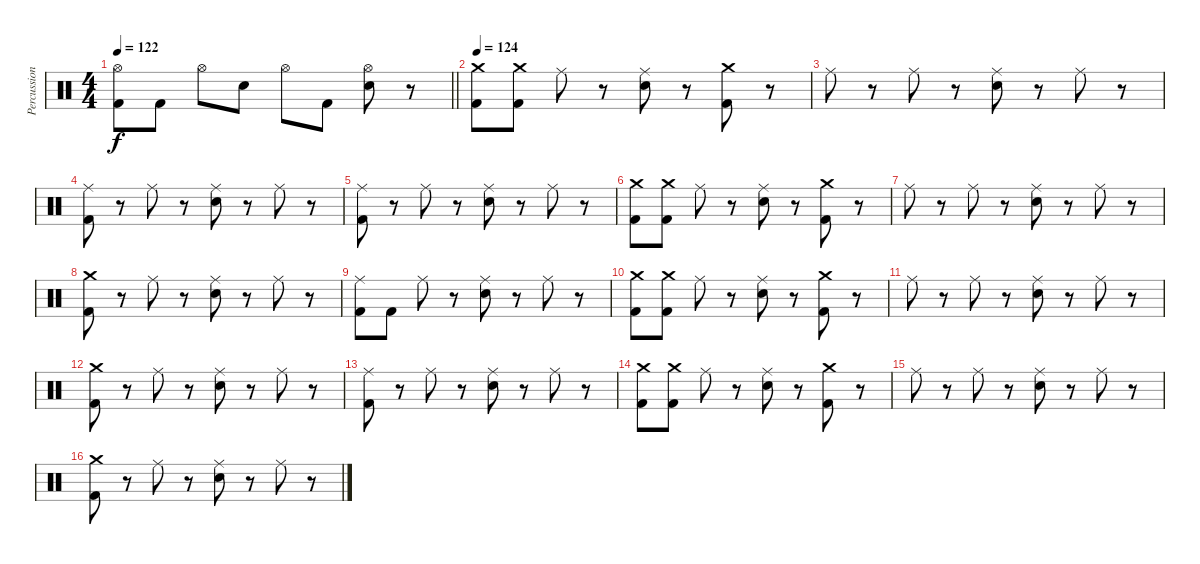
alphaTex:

\track ("Percussion" "Percussion") {instrument percussion}
\staff {score}
\articulation defaults
\ts (4 4)
\tempo 122
\clef neutral
\barLineRight lightlight
\ks c
("Hi-Hat (open)" "Kick (hit) 2").8{dy f} "Kick (hit) 2".8 "Hi-Hat (open)".8 "Electric Snare (hit)".8 "Hi-Hat (open)".8 "Kick (hit) 2".8 ("Hi-Hat (open)" "Electric Snare (hit)").8 r.8 |
\section ("" "")
\tempo 124
("Crash medium (hit)" "Kick (hit) 2").8 ("Crash medium (hit)" "Kick (hit) 2").8 "Ride (middle)".8 r.8 ("Ride (middle)" "Electric Snare (hit)").8 r.8 ("Crash medium (hit)" "Kick (hit) 2").8 r.8 |
"Ride (middle)".8 r.8 "Ride (middle)".8 r.8 ("Ride (middle)" "Electric Snare (hit)").8 r.8 "Ride (middle)".8 r.8 |
("Ride (middle)" "Kick (hit) 2").8 r.8 "Ride (middle)".8 r.8 ("Ride (middle)" "Electric Snare (hit)").8 r.8 "Ride (middle)".8 r.8 |
("Ride (middle)" "Kick (hit) 2").8 r.8 "Ride (middle)".8 r.8 ("Ride (middle)" "Electric Snare (hit)").8 r.8 "Ride (middle)".8 r.8 |
("Crash medium (hit)" "Kick (hit) 2").8 ("Crash medium (hit)" "Kick (hit) 2").8 "Ride (middle)".8 r.8 ("Ride (middle)" "Electric Snare (hit)").8 r.8 ("Crash medium (hit)" "Kick (hit) 2").8 r.8 |
"Ride (middle)".8 r.8 "Ride (middle)".8 r.8 ("Ride (middle)" "Electric Snare (hit)").8 r.8 "Ride (middle)".8 r.8 |
("Crash medium (hit)" "Kick (hit) 2").8 r.8 "Ride (middle)".8 r.8 ("Ride (middle)" "Electric Snare (hit)").8 r.8 "Ride (middle)".8 r.8 |
("Ride (middle)" "Kick (hit) 2").8 "Kick (hit) 2".8 "Ride (middle)".8 r.8 ("Ride (middle)" "Electric Snare (hit)").8 r.8 "Ride (middle)".8 r.8 |
("Crash medium (hit)" "Kick (hit) 2").8 ("Crash medium (hit)" "Kick (hit) 2").8 "Ride (middle)".8 r.8 ("Ride (middle)" "Electric Snare (hit)").8 r.8 ("Crash medium (hit)" "Kick (hit) 2").8 r.8 |
"Ride (middle)".8 r.8 "Ride (middle)".8 r.8 ("Ride (middle)" "Electric Snare (hit)").8 r.8 "Ride (middle)".8 r.8 |
("Crash medium (hit)" "Kick (hit) 2").8 r.8 "Ride (middle)".8 r.8 ("Ride (middle)" "Electric Snare (hit)").8 r.8 "Ride (middle)".8 r.8 |
("Ride (middle)" "Kick (hit) 2").8 r.8 "Ride (middle)".8 r.8 ("Ride (middle)" "Electric Snare (hit)").8 r.8 "Ride (middle)".8 r.8 |
("Crash medium (hit)" "Kick (hit) 2").8 ("Crash medium (hit)" "Kick (hit) 2").8 "Ride (middle)".8 r.8 ("Ride (middle)" "Electric Snare (hit)").8 r.8 ("Crash medium (hit)" "Kick (hit) 2").8 r.8 |
"Ride (middle)".8 r.8 "Ride (middle)".8 r.8 ("Ride (middle)" "Electric Snare (hit)").8 r.8 "Ride (middle)".8 r.8 |
("Crash medium (hit)" "Kick (hit) 2").8 r.8 "Ride (middle)".8 r.8 ("Ride (middle)" "Electric Snare (hit)").8 r.8 "Ride (middle)".8 r.8
